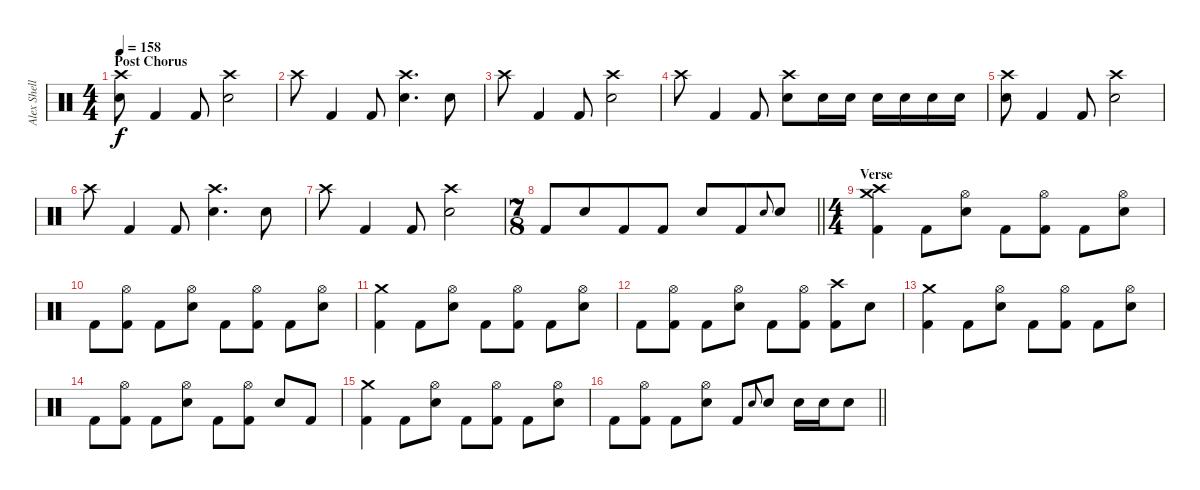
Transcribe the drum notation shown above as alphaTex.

\track ("Alex Shellnut" "Alex Shell") {instrument percussion}
\staff {score}
\articulation defaults
\ts (4 4)
\section ("" "Post Chorus")
\tempo 158
\clef neutral
\ks c
("Crash high (hit)" "Electric Snare (hit)").8{dy f} "Kick (hit) 2".4 "Kick (hit) 2".8 ("Crash high (hit)" "Electric Snare (hit)").2 |
"Crash high (hit)".8 "Kick (hit) 2".4 "Kick (hit) 2".8 ("Crash high (hit)" "Electric Snare (hit)").4{d} "Electric Snare (hit)".8 |
"Crash high (hit)".8 "Kick (hit) 2".4 "Kick (hit) 2".8 ("Crash high (hit)" "Electric Snare (hit)").2 |
"Crash high (hit)".8 "Kick (hit) 2".4 "Kick (hit) 2".8 ("Crash high (hit)" "Electric Snare (hit)").8 "Snare (hit) 2".16 "Snare (hit) 2".16 "Snare (hit) 2".16 "Snare (hit) 2".16 "Snare (hit) 2".16 "Snare (hit) 2".16 |
("Crash high (hit)" "Electric Snare (hit)").8 "Kick (hit) 2".4 "Kick (hit) 2".8 ("Crash high (hit)" "Electric Snare (hit)").2 |
"Crash high (hit)".8 "Kick (hit) 2".4 "Kick (hit) 2".8 ("Crash high (hit)" "Electric Snare (hit)").4{d} "Electric Snare (hit)".8 |
"Crash high (hit)".8 "Kick (hit) 2".4 "Kick (hit) 2".8 ("Crash high (hit)" "Electric Snare (hit)").2 |
\ts (7 8)
\barLineRight lightlight "Kick (hit) 2".8 "Electric Snare (hit)".8 "Kick (hit) 2".8 "Kick (hit) 2".8 "Electric Snare (hit)".8 "Kick (hit) 2".8 "Electric Snare (hit)".8{gr onbeat} "Electric Snare (hit)".8
|
\ts (4 4)
\section ("" "Verse")
("Crash medium (hit)" "Crash high (hit)" "Kick (hit) 2").4 "Kick (hit) 2".8 ("Hi-Hat (open)" "Electric Snare (hit)").8 "Kick (hit) 2".8 ("Hi-Hat (open)" "Kick (hit) 2").8 "Kick (hit) 2".8 ("Hi-Hat (open)" "Electric Snare (hit)").8 |
"Kick (hit) 2".8 ("Hi-Hat (open)" "Kick (hit) 2").8 "Kick (hit) 2".8 ("Hi-Hat (open)" "Electric Snare (hit)").8 "Kick (hit) 2".8 ("Hi-Hat (open)" "Kick (hit) 2").8 "Kick (hit) 2".8 ("Hi-Hat (open)" "Electric Snare (hit)").8 |
("Crash medium (hit)" "Kick (hit) 2").4 "Kick (hit) 2".8 ("Hi-Hat (open)" "Electric Snare (hit)").8 "Kick (hit) 2".8 ("Hi-Hat (open)" "Kick (hit) 2").8 "Kick (hit) 2".8 ("Hi-Hat (open)" "Electric Snare (hit)").8 |
"Kick (hit) 2".8 ("Hi-Hat (open)" "Kick (hit) 2").8 "Kick (hit) 2".8 ("Hi-Hat (open)" "Electric Snare (hit)").8 "Kick (hit) 2".8 ("Hi-Hat (open)" "Kick (hit) 2").8 ("Crash high (hit)" "Kick (hit) 2").8 "Electric Snare (hit)".8 |
("Crash medium (hit)" "Kick (hit) 2").4 "Kick (hit) 2".8 ("Hi-Hat (open)" "Electric Snare (hit)").8 "Kick (hit) 2".8 ("Hi-Hat (open)" "Kick (hit) 2").8 "Kick (hit) 2".8 ("Hi-Hat (open)" "Electric Snare (hit)").8 |
"Kick (hit) 2".8 ("Hi-Hat (open)" "Kick (hit) 2").8 "Kick (hit) 2".8 ("Hi-Hat (open)" "Electric Snare (hit)").8 "Kick (hit) 2".8 ("Hi-Hat (open)" "Kick (hit) 2").8 "Electric Snare (hit)".8 "Kick (hit) 2".8 |
("Crash medium (hit)" "Kick (hit) 2").4 "Kick (hit) 2".8 ("Hi-Hat (open)" "Electric Snare (hit)").8 "Kick (hit) 2".8 ("Hi-Hat (open)" "Kick (hit) 2").8 "Kick (hit) 2".8 ("Hi-Hat (open)" "Electric Snare (hit)").8 |
\barLineRight lightlight "Kick (hit) 2".8
("Hi-Hat (open)" "Kick (hit) 2").8 "Kick (hit) 2".8 ("Hi-Hat (open)" "Electric Snare (hit)").8 "Kick (hit) 2".8 "Electric Snare (hit)".8{gr onbeat} "Electric Snare (hit)".8 "Electric Snare (hit)".16 "Electric Snare (hit)".16 "Electric Snare (hit)".8
